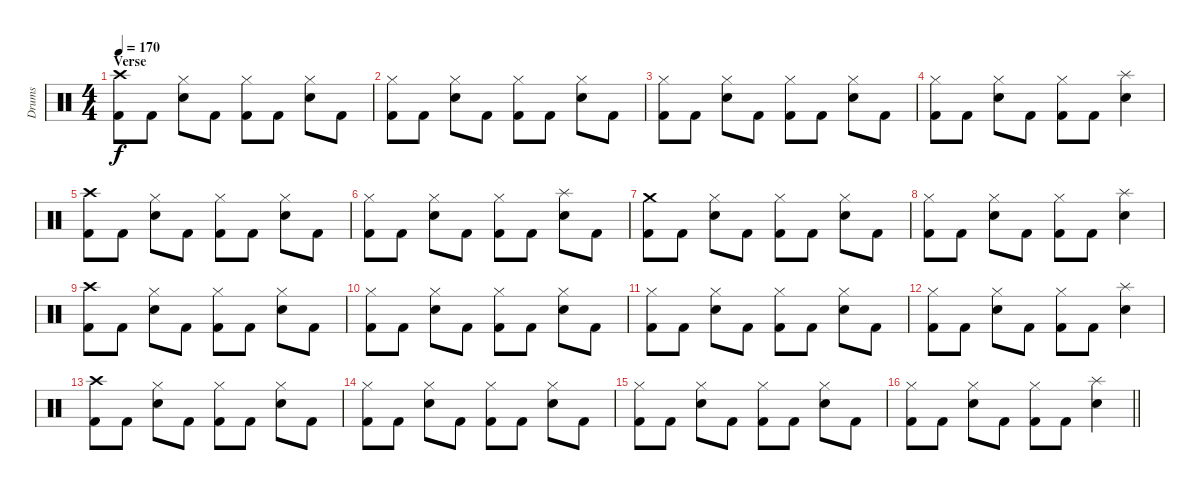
\track ("Drums" "Drums") {instrument percussion}
\staff {score}
\articulation defaults
\ts (4 4)
\section ("" "Verse")
\tempo 170
\clef neutral
\ks c
("Kick (hit) 2" "Crash high (hit)").8{dy f} "Kick (hit) 2".8 ("Hi-Hat (closed)" "Electric Snare (hit)").8 "Kick (hit) 2".8 ("Kick (hit) 2" "Hi-Hat (closed)").8 "Kick (hit) 2".8 ("Hi-Hat (closed)" "Electric Snare (hit)").8 "Kick (hit) 2".8 |
("Kick (hit) 2" "Hi-Hat (closed)").8 "Kick (hit) 2".8 ("Hi-Hat (closed)" "Electric Snare (hit)").8 "Kick (hit) 2".8 ("Kick (hit) 2" "Hi-Hat (closed)").8 "Kick (hit) 2".8 ("Hi-Hat (closed)" "Electric Snare (hit)").8 "Kick (hit) 2".8 |
("Kick (hit) 2" "Hi-Hat (closed)").8 "Kick (hit) 2".8 ("Hi-Hat (closed)" "Electric Snare (hit)").8 "Kick (hit) 2".8 ("Kick (hit) 2" "Hi-Hat (closed)").8 "Kick (hit) 2".8 ("Hi-Hat (closed)" "Electric Snare (hit)").8 "Kick (hit) 2".8 |
("Kick (hit) 2" "Hi-Hat (closed)").8 "Kick (hit) 2".8 ("Hi-Hat (closed)" "Electric Snare (hit)").8 "Kick (hit) 2".8 ("Kick (hit) 2" "Hi-Hat (closed)").8 "Kick (hit) 2".8 ("Splash (hit)" "Electric Snare (hit)").4 |
("Kick (hit) 2" "Crash high (hit)").8 "Kick (hit) 2".8 ("Hi-Hat (closed)" "Electric Snare (hit)").8 "Kick (hit) 2".8 ("Kick (hit) 2" "Hi-Hat (closed)").8 "Kick (hit) 2".8 ("Hi-Hat (closed)" "Electric Snare (hit)").8 "Kick (hit) 2".8 |
("Kick (hit) 2" "Hi-Hat (closed)").8 "Kick (hit) 2".8 ("Hi-Hat (closed)" "Electric Snare (hit)").8 "Kick (hit) 2".8 ("Kick (hit) 2" "Hi-Hat (closed)").8 "Kick (hit) 2".8 ("Splash (hit)" "Electric Snare (hit)").8 "Kick (hit) 2".8 |
("Kick (hit) 2" "Crash medium (hit)").8 "Kick (hit) 2".8 ("Hi-Hat (closed)" "Electric Snare (hit)").8 "Kick (hit) 2".8 ("Kick (hit) 2" "Hi-Hat (closed)").8 "Kick (hit) 2".8 ("Hi-Hat (closed)" "Electric Snare (hit)").8 "Kick (hit) 2".8 |
("Kick (hit) 2" "Hi-Hat (closed)").8 "Kick (hit) 2".8 ("Hi-Hat (closed)" "Electric Snare (hit)").8 "Kick (hit) 2".8 ("Kick (hit) 2" "Hi-Hat (closed)").8 "Kick (hit) 2".8 ("Splash (hit)" "Electric Snare (hit)").4 |
("Kick (hit) 2" "Crash high (hit)").8 "Kick (hit) 2".8 ("Hi-Hat (closed)" "Electric Snare (hit)").8 "Kick (hit) 2".8 ("Kick (hit) 2" "Hi-Hat (closed)").8 "Kick (hit) 2".8 ("Hi-Hat (closed)" "Electric Snare (hit)").8 "Kick (hit) 2".8 |
("Kick (hit) 2" "Hi-Hat (closed)").8 "Kick (hit) 2".8 ("Hi-Hat (closed)" "Electric Snare (hit)").8 "Kick (hit) 2".8 ("Kick (hit) 2" "Hi-Hat (closed)").8 "Kick (hit) 2".8 ("Hi-Hat (closed)" "Electric Snare (hit)").8 "Kick (hit) 2".8 |
("Kick (hit) 2" "Hi-Hat (closed)").8 "Kick (hit) 2".8 ("Hi-Hat (closed)" "Electric Snare (hit)").8 "Kick (hit) 2".8 ("Kick (hit) 2" "Hi-Hat (closed)").8 "Kick (hit) 2".8 ("Hi-Hat (closed)" "Electric Snare (hit)").8 "Kick (hit) 2".8 |
("Kick (hit) 2" "Hi-Hat (closed)").8 "Kick (hit) 2".8 ("Hi-Hat (closed)" "Electric Snare (hit)").8 "Kick (hit) 2".8 ("Kick (hit) 2" "Hi-Hat (closed)").8 "Kick (hit) 2".8 ("Splash (hit)" "Electric Snare (hit)").4 |
("Kick (hit) 2" "Crash high (hit)").8 "Kick (hit) 2".8 ("Hi-Hat (closed)" "Electric Snare (hit)").8 "Kick (hit) 2".8 ("Kick (hit) 2" "Hi-Hat (closed)").8 "Kick (hit) 2".8 ("Hi-Hat (closed)" "Electric Snare (hit)").8 "Kick (hit) 2".8 |
("Kick (hit) 2" "Hi-Hat (closed)").8 "Kick (hit) 2".8 ("Hi-Hat (closed)" "Electric Snare (hit)").8 "Kick (hit) 2".8 ("Kick (hit) 2" "Hi-Hat (closed)").8 "Kick (hit) 2".8 ("Hi-Hat (closed)" "Electric Snare (hit)").8 "Kick (hit) 2".8 |
("Kick (hit) 2" "Hi-Hat (closed)").8 "Kick (hit) 2".8 ("Hi-Hat (closed)" "Electric Snare (hit)").8 "Kick (hit) 2".8 ("Kick (hit) 2" "Hi-Hat (closed)").8 "Kick (hit) 2".8 ("Hi-Hat (closed)" "Electric Snare (hit)").8 "Kick (hit) 2".8 |
\barLineRight lightlight
("Kick (hit) 2" "Hi-Hat (closed)").8 "Kick (hit) 2".8 ("Hi-Hat (closed)" "Electric Snare (hit)").8 "Kick (hit) 2".8 ("Kick (hit) 2" "Hi-Hat (closed)").8 "Kick (hit) 2".8 ("Splash (hit)" "Electric Snare (hit)").4
